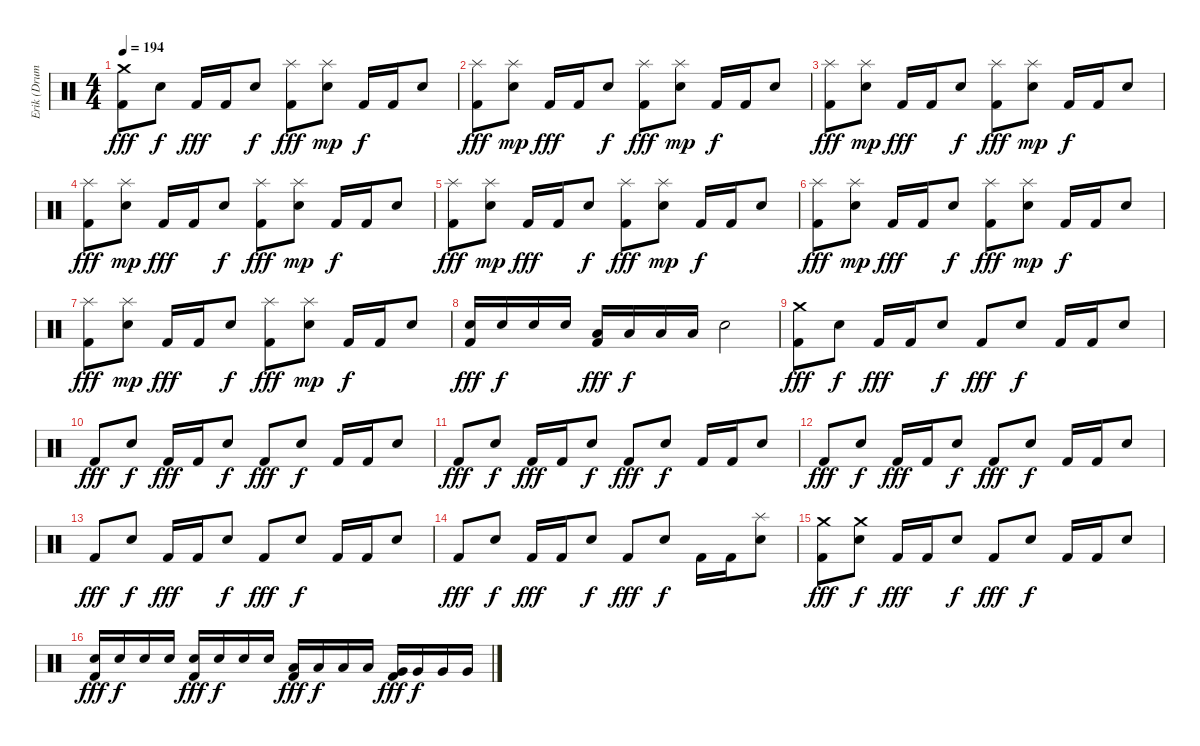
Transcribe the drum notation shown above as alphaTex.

\track ("Erik (Drums)" "Erik (Drum") {instrument percussion}
\staff {score}
\articulation defaults
\ts (4 4)
\tempo 194
\clef neutral
\ks c
("Crash medium (hit)" "Kick (hit) 2").8{dy fff} "Electric Snare (hit)".8{dy f} "Kick (hit) 2".16{dy fff} "Kick (hit) 2".16 "Electric Snare (hit)".8{dy f} ("Splash (hit)" "Kick (hit) 2").8{dy fff} ("Splash (hit)" "Electric Snare (hit)").8{dy mp} "Kick (hit) 2".16{dy f} "Kick (hit) 2".16 "Electric Snare (hit)".8 |
("Splash (hit)" "Kick (hit) 2").8{dy fff} ("Splash (hit)" "Electric Snare (hit)").8{dy mp} "Kick (hit) 2".16{dy fff} "Kick (hit) 2".16 "Electric Snare (hit)".8{dy f} ("Splash (hit)" "Kick (hit) 2").8{dy fff} ("Splash (hit)" "Electric Snare (hit)").8{dy mp} "Kick (hit) 2".16{dy f} "Kick (hit) 2".16 "Electric Snare (hit)".8 |
("Splash (hit)" "Kick (hit) 2").8{dy fff} ("Splash (hit)" "Electric Snare (hit)").8{dy mp} "Kick (hit) 2".16{dy fff} "Kick (hit) 2".16 "Electric Snare (hit)".8{dy f} ("Splash (hit)" "Kick (hit) 2").8{dy fff} ("Splash (hit)" "Electric Snare (hit)").8{dy mp} "Kick (hit) 2".16{dy f} "Kick (hit) 2".16 "Electric Snare (hit)".8 |
("Splash (hit)" "Kick (hit) 2").8{dy fff} ("Splash (hit)" "Electric Snare (hit)").8{dy mp} "Kick (hit) 2".16{dy fff} "Kick (hit) 2".16 "Electric Snare (hit)".8{dy f} ("Splash (hit)" "Kick (hit) 2").8{dy fff} ("Splash (hit)" "Electric Snare (hit)").8{dy mp} "Kick (hit) 2".16{dy f} "Kick (hit) 2".16 "Electric Snare (hit)".8 |
("Splash (hit)" "Kick (hit) 2").8{dy fff} ("Splash (hit)" "Electric Snare (hit)").8{dy mp} "Kick (hit) 2".16{dy fff} "Kick (hit) 2".16 "Electric Snare (hit)".8{dy f} ("Splash (hit)" "Kick (hit) 2").8{dy fff} ("Splash (hit)" "Electric Snare (hit)").8{dy mp} "Kick (hit) 2".16{dy f} "Kick (hit) 2".16 "Electric Snare (hit)".8 |
("Splash (hit)" "Kick (hit) 2").8{dy fff} ("Splash (hit)" "Electric Snare (hit)").8{dy mp} "Kick (hit) 2".16{dy fff} "Kick (hit) 2".16 "Electric Snare (hit)".8{dy f} ("Splash (hit)" "Kick (hit) 2").8{dy fff} ("Splash (hit)" "Electric Snare (hit)").8{dy mp} "Kick (hit) 2".16{dy f} "Kick (hit) 2".16 "Electric Snare (hit)".8 |
("Splash (hit)" "Kick (hit) 2").8{dy fff} ("Splash (hit)" "Electric Snare (hit)").8{dy mp} "Kick (hit) 2".16{dy fff} "Kick (hit) 2".16 "Electric Snare (hit)".8{dy f} ("Splash (hit)" "Kick (hit) 2").8{dy fff} ("Splash (hit)" "Electric Snare (hit)").8{dy mp} "Kick (hit) 2".16{dy f} "Kick (hit) 2".16 "Electric Snare (hit)".8 |
("Electric Snare (hit)" "Kick (hit) 2").16{dy fff} "Electric Snare (hit)".16{dy f} "Electric Snare (hit)".16 "Electric Snare (hit)".16 ("Low Tom (hit)" "Kick (hit) 2").16{dy fff} "Low Tom (hit)".16{dy f} "Low Tom (hit)".16 "Low Tom (hit)".16 "Electric Snare (hit)".2 |
("Crash medium (hit)" "Kick (hit) 2").8{dy fff} "Electric Snare (hit)".8{dy f} "Kick (hit) 2".16{dy fff} "Kick (hit) 2".16 "Electric Snare (hit)".8{dy f} "Kick (hit) 2".8{dy fff} "Electric Snare (hit)".8{dy f} "Kick (hit) 2".16 "Kick (hit) 2".16 "Electric Snare (hit)".8 |
"Kick (hit) 2".8{dy fff} "Electric Snare (hit)".8{dy f} "Kick (hit) 2".16{dy fff} "Kick (hit) 2".16 "Electric Snare (hit)".8{dy f} "Kick (hit) 2".8{dy fff} "Electric Snare (hit)".8{dy f} "Kick (hit) 2".16 "Kick (hit) 2".16 "Electric Snare (hit)".8 |
"Kick (hit) 2".8{dy fff} "Electric Snare (hit)".8{dy f} "Kick (hit) 2".16{dy fff} "Kick (hit) 2".16 "Electric Snare (hit)".8{dy f} "Kick (hit) 2".8{dy fff} "Electric Snare (hit)".8{dy f} "Kick (hit) 2".16 "Kick (hit) 2".16 "Electric Snare (hit)".8 |
"Kick (hit) 2".8{dy fff} "Electric Snare (hit)".8{dy f} "Kick (hit) 2".16{dy fff} "Kick (hit) 2".16 "Electric Snare (hit)".8{dy f} "Kick (hit) 2".8{dy fff} "Electric Snare (hit)".8{dy f} "Kick (hit) 2".16 "Kick (hit) 2".16 "Electric Snare (hit)".8 |
"Kick (hit) 2".8{dy fff} "Electric Snare (hit)".8{dy f} "Kick (hit) 2".16{dy fff} "Kick (hit) 2".16 "Electric Snare (hit)".8{dy f} "Kick (hit) 2".8{dy fff} "Electric Snare (hit)".8{dy f} "Kick (hit) 2".16 "Kick (hit) 2".16 "Electric Snare (hit)".8 |
"Kick (hit) 2".8{dy fff} "Electric Snare (hit)".8{dy f} "Kick (hit) 2".16{dy fff} "Kick (hit) 2".16 "Electric Snare (hit)".8{dy f} "Kick (hit) 2".8{dy fff} "Electric Snare (hit)".8{dy f} "Kick (hit) 2".16 "Kick (hit) 2".16 ("Splash (hit)" "Electric Snare (hit)").8 |
("Crash medium (hit)" "Kick (hit) 2").8{dy fff} ("Crash medium (hit)" "Electric Snare (hit)").8{dy f} "Kick (hit) 2".16{dy fff} "Kick (hit) 2".16 "Electric Snare (hit)".8{dy f} "Kick (hit) 2".8{dy fff} "Electric Snare (hit)".8{dy f} "Kick (hit) 2".16 "Kick (hit) 2".16 "Electric Snare (hit)".8 |
("Electric Snare (hit)" "Kick (hit) 2").16{dy fff} "Electric Snare (hit)".16{dy f} "Electric Snare (hit)".16 "Electric Snare (hit)".16 ("Electric Snare (hit)" "Kick (hit) 2").16{dy fff} "Electric Snare (hit)".16{dy f} "Electric Snare (hit)".16 "Electric Snare (hit)".16 ("Low Tom (hit)" "Kick (hit) 2").16{dy fff} "Low Tom (hit)".16{dy f} "Low Tom (hit)".16 "Low Tom (hit)".16 ("Very Low Tom (hit)" "Kick (hit) 2").16{dy fff} "Very Low Tom (hit)".16{dy f} "Very Low Tom (hit)".16 "Very Low Tom (hit)".16
